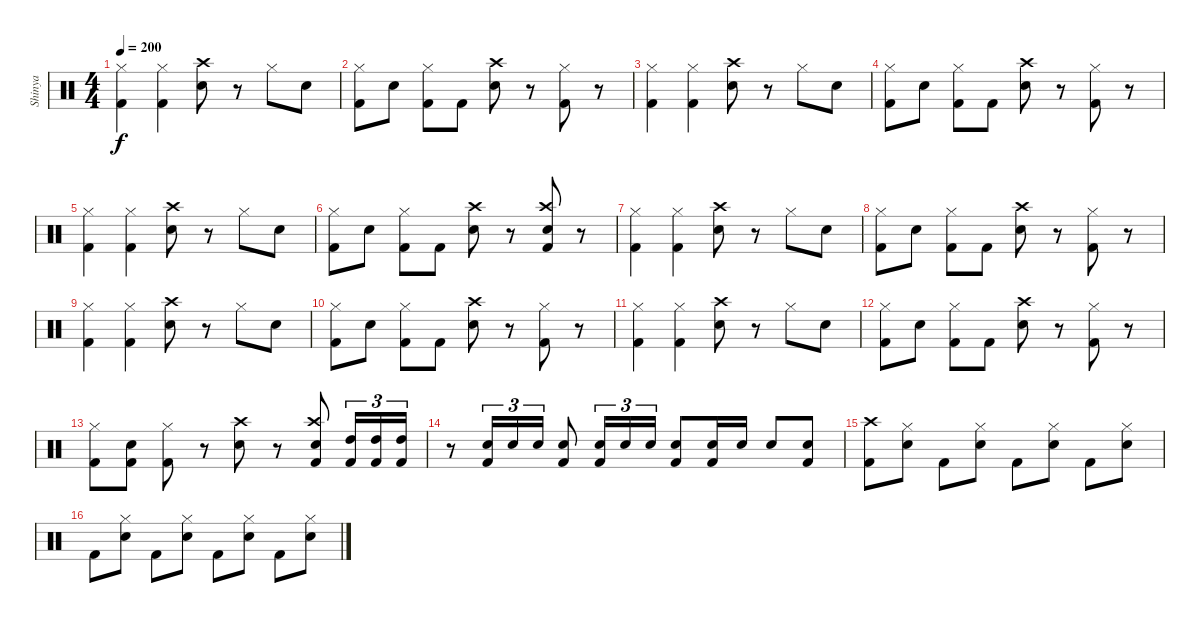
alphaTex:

\track ("Shinya" "Shinya") {instrument percussion}
\staff {score}
\articulation defaults
\ts (4 4)
\tempo 200
\clef neutral
\ks c
("Hi-Hat (closed)" "Kick (hit) 2").4{dy f} ("Hi-Hat (closed)" "Kick (hit) 2").4 ("Crash high (hit)" "Electric Snare (hit)").8 r.8 "Hi-Hat (closed)".8 "Electric Snare (hit)".8 |
("Hi-Hat (closed)" "Kick (hit) 2").8 "Electric Snare (hit)".8 ("Hi-Hat (closed)" "Kick (hit) 2").8 "Kick (hit) 2".8 ("Crash high (hit)" "Electric Snare (hit)").8 r.8 ("Hi-Hat (closed)" "Kick (hit) 2").8 r.8 |
("Hi-Hat (closed)" "Kick (hit) 2").4 ("Hi-Hat (closed)" "Kick (hit) 2").4 ("Crash high (hit)" "Electric Snare (hit)").8 r.8 "Hi-Hat (closed)".8 "Electric Snare (hit)".8 |
("Hi-Hat (closed)" "Kick (hit) 2").8 "Electric Snare (hit)".8 ("Hi-Hat (closed)" "Kick (hit) 2").8 "Kick (hit) 2".8 ("Crash high (hit)" "Electric Snare (hit)").8 r.8 ("Hi-Hat (closed)" "Kick (hit) 2").8 r.8 |
("Hi-Hat (closed)" "Kick (hit) 2").4 ("Hi-Hat (closed)" "Kick (hit) 2").4 ("Crash high (hit)" "Electric Snare (hit)").8 r.8 "Hi-Hat (closed)".8 "Electric Snare (hit)".8 |
("Hi-Hat (closed)" "Kick (hit) 2").8 "Electric Snare (hit)".8 ("Hi-Hat (closed)" "Kick (hit) 2").8 "Kick (hit) 2".8 ("Crash high (hit)" "Electric Snare (hit)").8 r.8 ("Crash high (hit)" "Electric Snare (hit)" "Kick (hit) 2").8 r.8 |
("Hi-Hat (closed)" "Kick (hit) 2").4 ("Hi-Hat (closed)" "Kick (hit) 2").4 ("Crash high (hit)" "Electric Snare (hit)").8 r.8 "Hi-Hat (closed)".8 "Electric Snare (hit)".8 |
("Hi-Hat (closed)" "Kick (hit) 2").8 "Electric Snare (hit)".8 ("Hi-Hat (closed)" "Kick (hit) 2").8 "Kick (hit) 2".8 ("Crash high (hit)" "Electric Snare (hit)").8 r.8 ("Hi-Hat (closed)" "Kick (hit) 2").8 r.8 |
("Hi-Hat (closed)" "Kick (hit) 2").4 ("Hi-Hat (closed)" "Kick (hit) 2").4 ("Crash high (hit)" "Electric Snare (hit)").8 r.8 "Hi-Hat (closed)".8 "Electric Snare (hit)".8 |
("Hi-Hat (closed)" "Kick (hit) 2").8 "Electric Snare (hit)".8 ("Hi-Hat (closed)" "Kick (hit) 2").8 "Kick (hit) 2".8 ("Crash high (hit)" "Electric Snare (hit)").8 r.8 ("Hi-Hat (closed)" "Kick (hit) 2").8 r.8 |
("Hi-Hat (closed)" "Kick (hit) 2").4 ("Hi-Hat (closed)" "Kick (hit) 2").4 ("Crash high (hit)" "Electric Snare (hit)").8 r.8 "Hi-Hat (closed)".8 "Electric Snare (hit)".8 |
("Hi-Hat (closed)" "Kick (hit) 2").8 "Electric Snare (hit)".8 ("Hi-Hat (closed)" "Kick (hit) 2").8 "Kick (hit) 2".8 ("Crash high (hit)" "Electric Snare (hit)").8 r.8 ("Hi-Hat (closed)" "Kick (hit) 2").8 r.8 |
("Hi-Hat (closed)" "Kick (hit) 2").8 ("Electric Snare (hit)" "Kick (hit) 2").8 ("Hi-Hat (closed)" "Kick (hit) 2").8 r.8 ("Crash high (hit)" "Electric Snare (hit)").8 r.8 ("Crash high (hit)" "Electric Snare (hit)" "Kick (hit) 2").8 ("High Tom (hit)" "Kick (hit) 2").16{tu (3 2)} ("High Tom (hit)" "Kick (hit) 2").16{tu (3 2)} ("High Tom (hit)" "Kick (hit) 2").16{tu (3 2)} |
r.8 ("Electric Snare (hit)" "Kick (hit) 2").16{tu (3 2)} "Electric Snare (hit)".16{tu (3 2)} "Electric Snare (hit)".16{tu (3 2)} ("Electric Snare (hit)" "Kick (hit) 2").8 ("Electric Snare (hit)" "Kick (hit) 2").16{tu (3 2)} "Electric Snare (hit)".16{tu (3 2)} "Electric Snare (hit)".16{tu (3 2)} ("Electric Snare (hit)" "Kick (hit) 2").8 ("Electric Snare (hit)" "Kick (hit) 2").16 "Electric Snare (hit)".16 "Electric Snare (hit)".8 ("Electric Snare (hit)" "Kick (hit) 2").8 |
("Crash high (hit)" "Kick (hit) 2").8 ("Hi-Hat (closed)" "Electric Snare (hit)").8 "Kick (hit) 2".8 ("Hi-Hat (closed)" "Electric Snare (hit)").8 "Kick (hit) 2".8 ("Hi-Hat (closed)" "Electric Snare (hit)").8 "Kick (hit) 2".8 ("Hi-Hat (closed)" "Electric Snare (hit)").8 |
"Kick (hit) 2".8 ("Hi-Hat (closed)" "Electric Snare (hit)").8 "Kick (hit) 2".8 ("Hi-Hat (closed)" "Electric Snare (hit)").8 "Kick (hit) 2".8 ("Hi-Hat (closed)" "Electric Snare (hit)").8 "Kick (hit) 2".8 ("Hi-Hat (closed)" "Electric Snare (hit)").8
